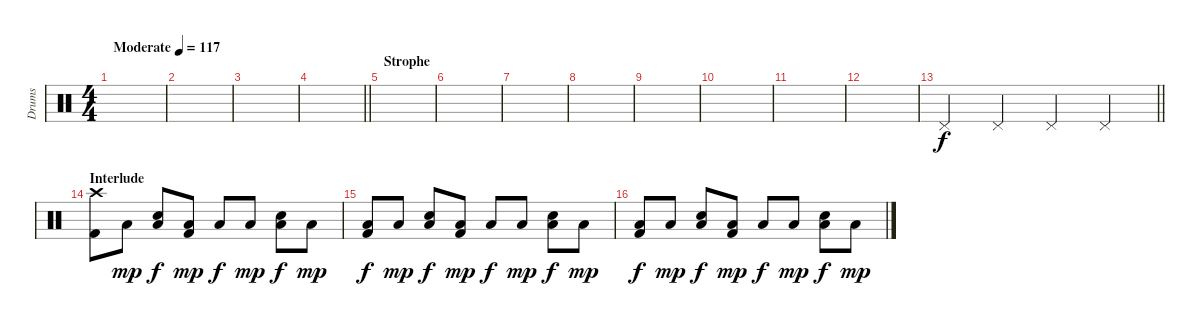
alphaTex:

\track ("Drums" "Drums") {instrument percussion}
\staff {score}
\articulation defaults
\ts (4 4)
\tempo (117 "Moderate")
\clef neutral
\ks c
|
|
|
\barLineRight lightlight
|
\section ("" "Strophe")
|
|
|
|
|
|
|
|
\barLineRight lightlight "Pedal Hi-Hat (hit)".4 "Pedal Hi-Hat (hit)".4 "Pedal Hi-Hat (hit)".4 "Pedal Hi-Hat (hit)".4
|
\section ("" "Interlude")
("Crash high (hit)" "Kick (hit) 2").8 "Low Floor Tom (hit)".8{dy mp} ("Low Floor Tom (hit)" "Snare (hit) 2").8{dy f} ("Low Floor Tom (hit)" "Kick (hit) 2").8{dy mp} "Low Floor Tom (hit)".8{dy f} "Low Floor Tom (hit)".8{dy mp} ("Low Floor Tom (hit)" "Snare (hit) 2").8{dy f} "Low Floor Tom (hit)".8{dy mp} |
("Low Floor Tom (hit)" "Kick (hit) 2").8{dy f} "Low Floor Tom (hit)".8{dy mp} ("Low Floor Tom (hit)" "Snare (hit) 2").8{dy f} ("Low Floor Tom (hit)" "Kick (hit) 2").8{dy mp} "Low Floor Tom (hit)".8{dy f} "Low Floor Tom (hit)".8{dy mp} ("Low Floor Tom (hit)" "Snare (hit) 2").8{dy f} "Low Floor Tom (hit)".8{dy mp} |
("Low Floor Tom (hit)" "Kick (hit) 2").8{dy f} "Low Floor Tom (hit)".8{dy mp} ("Low Floor Tom (hit)" "Snare (hit) 2").8{dy f} ("Low Floor Tom (hit)" "Kick (hit) 2").8{dy mp} "Low Floor Tom (hit)".8{dy f} "Low Floor Tom (hit)".8{dy mp} ("Low Floor Tom (hit)" "Snare (hit) 2").8{dy f} "Low Floor Tom (hit)".8{dy mp}
